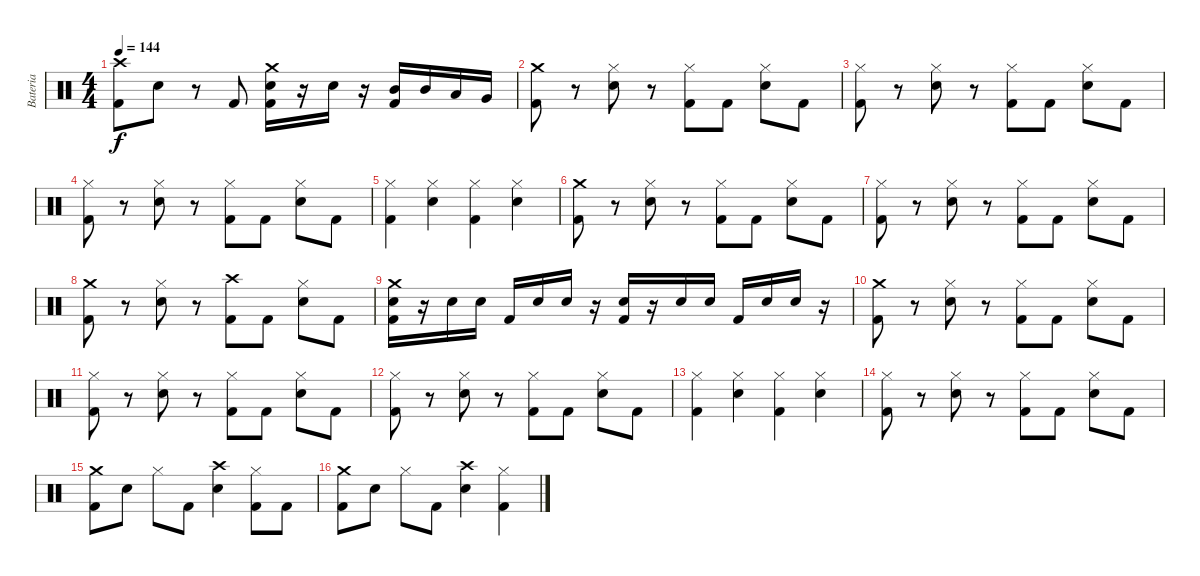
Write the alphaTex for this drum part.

\track ("Bateria" "Bateria") {instrument percussion}
\staff {score}
\articulation defaults
\ts (4 4)
\tempo 144
\clef neutral
\ks c
("Crash high (hit)" "Kick (hit) 2").8{dy f} "Electric Snare (hit)".8 r.8 "Kick (hit) 2".8 ("Crash medium (hit)" "Electric Snare (hit)" "Kick (hit) 2").16 r.16 "Electric Snare (hit)".16 r.16 ("Mid Tom (hit)" "Kick (hit) 2").16 "Mid Tom (hit)".16 "Low Tom (hit)".16 "Very Low Tom (hit)".16 |
("Crash medium (hit)" "Kick (hit) 2").8 r.8 ("Hi-Hat (closed)" "Electric Snare (hit)").8 r.8 ("Hi-Hat (closed)" "Kick (hit) 2").8 "Kick (hit) 2".8 ("Hi-Hat (closed)" "Electric Snare (hit)").8 "Kick (hit) 2".8 |
("Hi-Hat (closed)" "Kick (hit) 2").8 r.8 ("Hi-Hat (closed)" "Electric Snare (hit)").8 r.8 ("Hi-Hat (closed)" "Kick (hit) 2").8 "Kick (hit) 2".8 ("Hi-Hat (closed)" "Electric Snare (hit)").8 "Kick (hit) 2".8 |
("Hi-Hat (closed)" "Kick (hit) 2").8 r.8 ("Hi-Hat (closed)" "Electric Snare (hit)").8 r.8 ("Hi-Hat (closed)" "Kick (hit) 2").8 "Kick (hit) 2".8 ("Hi-Hat (closed)" "Electric Snare (hit)").8 "Kick (hit) 2".8 |
("Hi-Hat (closed)" "Kick (hit) 2").4 ("Hi-Hat (closed)" "Electric Snare (hit)").4 ("Hi-Hat (closed)" "Kick (hit) 2").4 ("Hi-Hat (closed)" "Electric Snare (hit)").4 |
("Crash medium (hit)" "Kick (hit) 2").8 r.8 ("Hi-Hat (closed)" "Electric Snare (hit)").8 r.8 ("Hi-Hat (closed)" "Kick (hit) 2").8 "Kick (hit) 2".8 ("Hi-Hat (closed)" "Electric Snare (hit)").8 "Kick (hit) 2".8 |
("Hi-Hat (closed)" "Kick (hit) 2").8 r.8 ("Hi-Hat (closed)" "Electric Snare (hit)").8 r.8 ("Hi-Hat (closed)" "Kick (hit) 2").8 "Kick (hit) 2".8 ("Hi-Hat (closed)" "Electric Snare (hit)").8 "Kick (hit) 2".8 |
("Crash medium (hit)" "Kick (hit) 2").8 r.8 ("Hi-Hat (closed)" "Electric Snare (hit)").8 r.8 ("Crash high (hit)" "Kick (hit) 2").8 "Kick (hit) 2".8 ("Hi-Hat (closed)" "Electric Snare (hit)").8 "Kick (hit) 2".8 |
("Crash medium (hit)" "Electric Snare (hit)" "Kick (hit) 2").16 r.16 "Electric Snare (hit)".16 "Electric Snare (hit)".16 "Kick (hit) 2".16 "Electric Snare (hit)".16 "Electric Snare (hit)".16 r.16 ("Electric Snare (hit)" "Kick (hit) 2").16 r.16 "Electric Snare (hit)".16 "Electric Snare (hit)".16 "Kick (hit) 2".16 "Electric Snare (hit)".16 "Electric Snare (hit)".16 r.16 |
("Crash medium (hit)" "Kick (hit) 2").8 r.8 ("Hi-Hat (closed)" "Electric Snare (hit)").8 r.8 ("Hi-Hat (closed)" "Kick (hit) 2").8 "Kick (hit) 2".8 ("Hi-Hat (closed)" "Electric Snare (hit)").8 "Kick (hit) 2".8 |
("Hi-Hat (closed)" "Kick (hit) 2").8 r.8 ("Hi-Hat (closed)" "Electric Snare (hit)").8 r.8 ("Hi-Hat (closed)" "Kick (hit) 2").8 "Kick (hit) 2".8 ("Hi-Hat (closed)" "Electric Snare (hit)").8 "Kick (hit) 2".8 |
("Hi-Hat (closed)" "Kick (hit) 2").8 r.8 ("Hi-Hat (closed)" "Electric Snare (hit)").8 r.8 ("Hi-Hat (closed)" "Kick (hit) 2").8 "Kick (hit) 2".8 ("Hi-Hat (closed)" "Electric Snare (hit)").8 "Kick (hit) 2".8 |
("Hi-Hat (closed)" "Kick (hit) 2").4 ("Hi-Hat (closed)" "Electric Snare (hit)").4 ("Hi-Hat (closed)" "Kick (hit) 2").4 ("Hi-Hat (closed)" "Electric Snare (hit)").4 |
("Hi-Hat (closed)" "Kick (hit) 2").8 r.8 ("Hi-Hat (closed)" "Electric Snare (hit)").8 r.8 ("Hi-Hat (closed)" "Kick (hit) 2").8 "Kick (hit) 2".8 ("Hi-Hat (closed)" "Electric Snare (hit)").8 "Kick (hit) 2".8 |
("Crash medium (hit)" "Kick (hit) 2").8 "Electric Snare (hit)".8 "Hi-Hat (closed)".8 "Kick (hit) 2".8 ("Crash high (hit)" "Electric Snare (hit)").4 ("Hi-Hat (closed)" "Kick (hit) 2").8 "Kick (hit) 2".8 |
("Crash medium (hit)" "Kick (hit) 2").8 "Electric Snare (hit)".8 "Hi-Hat (closed)".8 "Kick (hit) 2".8 ("Crash high (hit)" "Electric Snare (hit)").4 ("Hi-Hat (closed)" "Kick (hit) 2").4
